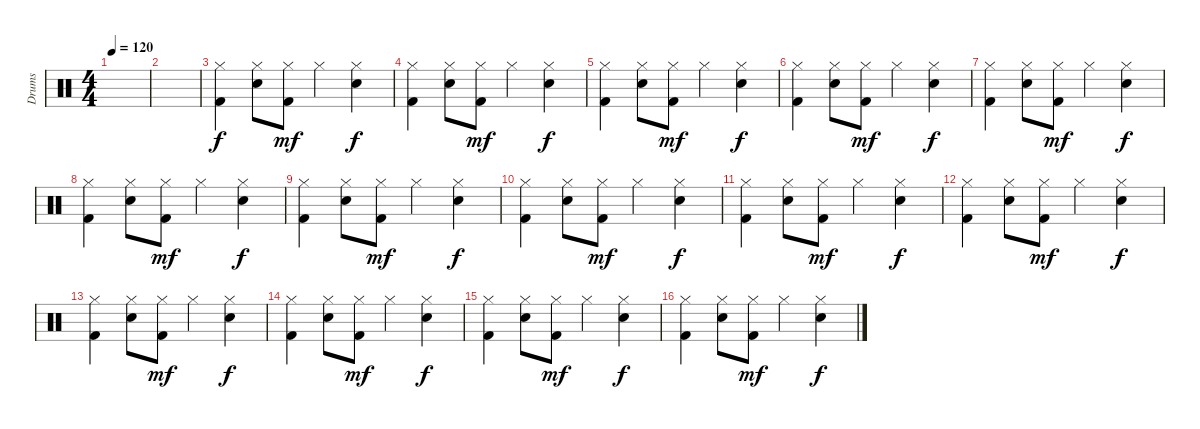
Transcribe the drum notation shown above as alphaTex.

\track ("Drums" "Drums") {instrument percussion}
\staff {score}
\articulation defaults
\ts (4 4)
\tempo 120
\clef neutral
\ks c
|
|
("Kick (hit) 2" "Hi-Hat (closed)").4 ("Snare (hit) 2" "Hi-Hat (closed)").8 ("Kick (hit) 2" "Hi-Hat (closed)").8{dy mf} "Hi-Hat (closed)".4{volume 13} ("Snare (hit) 2" "Hi-Hat (closed)").4{dy f} |
("Kick (hit) 2" "Hi-Hat (closed)").4 ("Snare (hit) 2" "Hi-Hat (closed)").8 ("Kick (hit) 2" "Hi-Hat (closed)").8{dy mf} "Hi-Hat (closed)".4{volume 13} ("Snare (hit) 2" "Hi-Hat (closed)").4{dy f} |
("Kick (hit) 2" "Hi-Hat (closed)").4 ("Snare (hit) 2" "Hi-Hat (closed)").8 ("Kick (hit) 2" "Hi-Hat (closed)").8{dy mf} "Hi-Hat (closed)".4{volume 13} ("Snare (hit) 2" "Hi-Hat (closed)").4{dy f} |
("Kick (hit) 2" "Hi-Hat (closed)").4 ("Snare (hit) 2" "Hi-Hat (closed)").8 ("Kick (hit) 2" "Hi-Hat (closed)").8{dy mf} "Hi-Hat (closed)".4{volume 13} ("Snare (hit) 2" "Hi-Hat (closed)").4{dy f} |
("Kick (hit) 2" "Hi-Hat (closed)").4 ("Snare (hit) 2" "Hi-Hat (closed)").8 ("Kick (hit) 2" "Hi-Hat (closed)").8{dy mf} "Hi-Hat (closed)".4{volume 13} ("Snare (hit) 2" "Hi-Hat (closed)").4{dy f} |
("Kick (hit) 2" "Hi-Hat (closed)").4 ("Snare (hit) 2" "Hi-Hat (closed)").8 ("Kick (hit) 2" "Hi-Hat (closed)").8{dy mf} "Hi-Hat (closed)".4{volume 13} ("Snare (hit) 2" "Hi-Hat (closed)").4{dy f} |
("Kick (hit) 2" "Hi-Hat (closed)").4 ("Snare (hit) 2" "Hi-Hat (closed)").8 ("Kick (hit) 2" "Hi-Hat (closed)").8{dy mf} "Hi-Hat (closed)".4{volume 13} ("Snare (hit) 2" "Hi-Hat (closed)").4{dy f} |
("Kick (hit) 2" "Hi-Hat (closed)").4 ("Snare (hit) 2" "Hi-Hat (closed)").8 ("Kick (hit) 2" "Hi-Hat (closed)").8{dy mf} "Hi-Hat (closed)".4{volume 13} ("Snare (hit) 2" "Hi-Hat (closed)").4{dy f} |
("Kick (hit) 2" "Hi-Hat (closed)").4 ("Snare (hit) 2" "Hi-Hat (closed)").8 ("Kick (hit) 2" "Hi-Hat (closed)").8{dy mf} "Hi-Hat (closed)".4{volume 13} ("Snare (hit) 2" "Hi-Hat (closed)").4{dy f} |
("Kick (hit) 2" "Hi-Hat (closed)").4 ("Snare (hit) 2" "Hi-Hat (closed)").8 ("Kick (hit) 2" "Hi-Hat (closed)").8{dy mf} "Hi-Hat (closed)".4{volume 13} ("Snare (hit) 2" "Hi-Hat (closed)").4{dy f} |
("Kick (hit) 2" "Hi-Hat (closed)").4 ("Snare (hit) 2" "Hi-Hat (closed)").8 ("Kick (hit) 2" "Hi-Hat (closed)").8{dy mf} "Hi-Hat (closed)".4{volume 13} ("Snare (hit) 2" "Hi-Hat (closed)").4{dy f} |
("Kick (hit) 2" "Hi-Hat (closed)").4 ("Snare (hit) 2" "Hi-Hat (closed)").8 ("Kick (hit) 2" "Hi-Hat (closed)").8{dy mf} "Hi-Hat (closed)".4{volume 13} ("Snare (hit) 2" "Hi-Hat (closed)").4{dy f} |
("Kick (hit) 2" "Hi-Hat (closed)").4 ("Snare (hit) 2" "Hi-Hat (closed)").8 ("Kick (hit) 2" "Hi-Hat (closed)").8{dy mf} "Hi-Hat (closed)".4{volume 13} ("Snare (hit) 2" "Hi-Hat (closed)").4{dy f} |
("Kick (hit) 2" "Hi-Hat (closed)").4 ("Snare (hit) 2" "Hi-Hat (closed)").8 ("Kick (hit) 2" "Hi-Hat (closed)").8{dy mf} "Hi-Hat (closed)".4{volume 13} ("Snare (hit) 2" "Hi-Hat (closed)").4{dy f}
